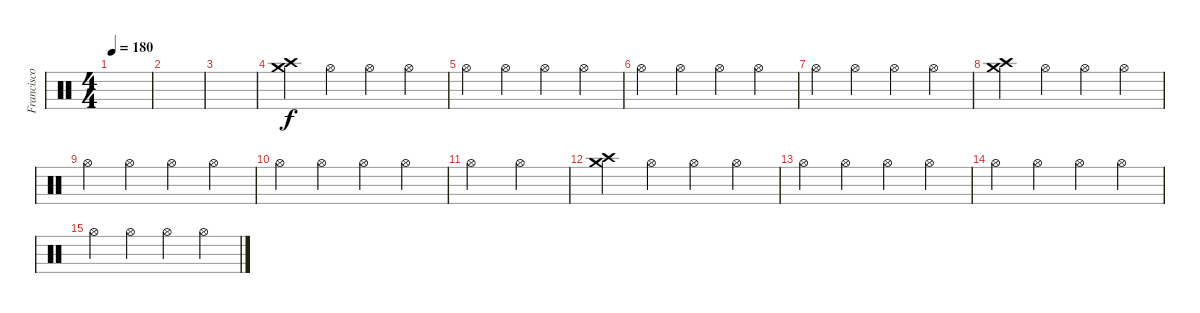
\track ("Francisco Izquierdo (Percusión)" "Francisco ") {instrument percussion}
\staff {score}
\articulation defaults
\ts (4 4)
\tempo 180
\clef neutral
\ks c
|
|
|
("Crash high (hit)" "Crash medium (hit)").4 "Hi-Hat (open)".4 "Hi-Hat (open)".4 "Hi-Hat (open)".4 |
"Hi-Hat (open)".4 "Hi-Hat (open)".4 "Hi-Hat (open)".4 "Hi-Hat (open)".4 |
"Hi-Hat (open)".4 "Hi-Hat (open)".4 "Hi-Hat (open)".4 "Hi-Hat (open)".4 |
"Hi-Hat (open)".4 "Hi-Hat (open)".4 "Hi-Hat (open)".4 "Hi-Hat (open)".4 |
("Crash high (hit)" "Crash medium (hit)").4 "Hi-Hat (open)".4 "Hi-Hat (open)".4 "Hi-Hat (open)".4 |
"Hi-Hat (open)".4 "Hi-Hat (open)".4 "Hi-Hat (open)".4 "Hi-Hat (open)".4 |
"Hi-Hat (open)".4 "Hi-Hat (open)".4 "Hi-Hat (open)".4 "Hi-Hat (open)".4 |
"Hi-Hat (open)".2 "Hi-Hat (open)".2 |
("Crash high (hit)" "Crash medium (hit)").4 "Hi-Hat (open)".4 "Hi-Hat (open)".4 "Hi-Hat (open)".4 |
"Hi-Hat (open)".4 "Hi-Hat (open)".4 "Hi-Hat (open)".4 "Hi-Hat (open)".4 |
"Hi-Hat (open)".4 "Hi-Hat (open)".4 "Hi-Hat (open)".4 "Hi-Hat (open)".4 |
"Hi-Hat (open)".4 "Hi-Hat (open)".4 "Hi-Hat (open)".4 "Hi-Hat (open)".4
